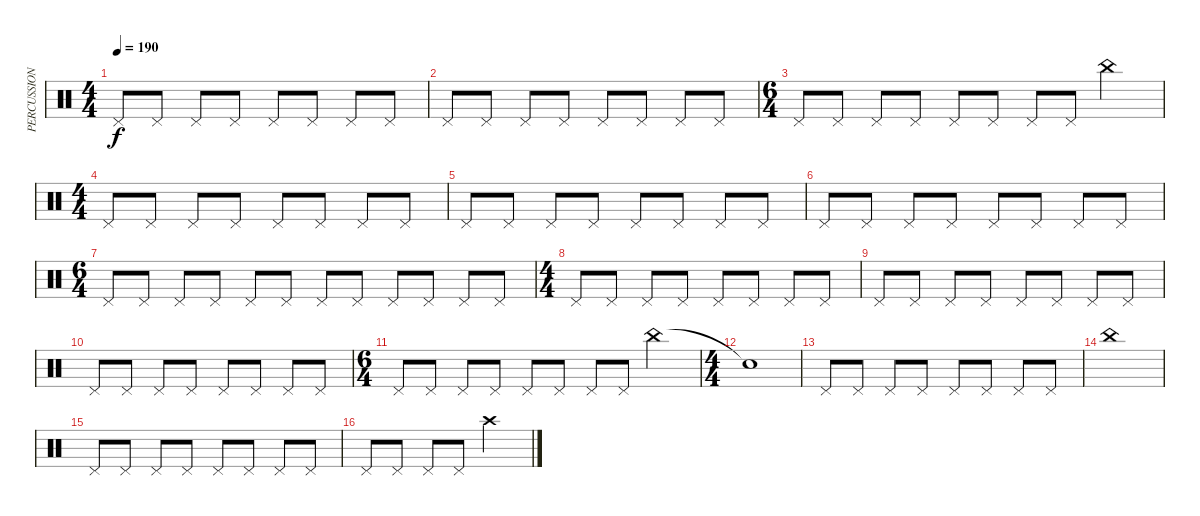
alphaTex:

\track ("PERCUSSION" "PERCUSSION") {instrument percussion}
\staff {score}
\articulation defaults
\ts (4 4)
\tempo 190
\clef neutral
\ks c "Pedal Hi-Hat (hit)".8{dy f} "Pedal Hi-Hat (hit)".8 "Pedal Hi-Hat (hit)".8 "Pedal Hi-Hat (hit)".8 "Pedal Hi-Hat (hit)".8 "Pedal Hi-Hat (hit)".8 "Pedal Hi-Hat (hit)".8 "Pedal Hi-Hat (hit)".8
|
"Pedal Hi-Hat (hit)".8 "Pedal Hi-Hat (hit)".8 "Pedal Hi-Hat (hit)".8 "Pedal Hi-Hat (hit)".8 "Pedal Hi-Hat (hit)".8 "Pedal Hi-Hat (hit)".8 "Pedal Hi-Hat (hit)".8 "Pedal Hi-Hat (hit)".8 |
\ts (6 4)
"Pedal Hi-Hat (hit)".8 "Pedal Hi-Hat (hit)".8 "Pedal Hi-Hat (hit)".8 "Pedal Hi-Hat (hit)".8 "Pedal Hi-Hat (hit)".8 "Pedal Hi-Hat (hit)".8 "Pedal Hi-Hat (hit)".8 "Pedal Hi-Hat (hit)".8 "China (hit)".2 |
\ts (4 4)
"Pedal Hi-Hat (hit)".8 "Pedal Hi-Hat (hit)".8 "Pedal Hi-Hat (hit)".8 "Pedal Hi-Hat (hit)".8 "Pedal Hi-Hat (hit)".8 "Pedal Hi-Hat (hit)".8 "Pedal Hi-Hat (hit)".8 "Pedal Hi-Hat (hit)".8 |
"Pedal Hi-Hat (hit)".8 "Pedal Hi-Hat (hit)".8 "Pedal Hi-Hat (hit)".8 "Pedal Hi-Hat (hit)".8 "Pedal Hi-Hat (hit)".8 "Pedal Hi-Hat (hit)".8 "Pedal Hi-Hat (hit)".8 "Pedal Hi-Hat (hit)".8 |
"Pedal Hi-Hat (hit)".8 "Pedal Hi-Hat (hit)".8 "Pedal Hi-Hat (hit)".8 "Pedal Hi-Hat (hit)".8 "Pedal Hi-Hat (hit)".8 "Pedal Hi-Hat (hit)".8 "Pedal Hi-Hat (hit)".8 "Pedal Hi-Hat (hit)".8 |
\ts (6 4)
"Pedal Hi-Hat (hit)".8 "Pedal Hi-Hat (hit)".8 "Pedal Hi-Hat (hit)".8 "Pedal Hi-Hat (hit)".8 "Pedal Hi-Hat (hit)".8 "Pedal Hi-Hat (hit)".8 "Pedal Hi-Hat (hit)".8 "Pedal Hi-Hat (hit)".8 "Pedal Hi-Hat (hit)".8 "Pedal Hi-Hat (hit)".8 "Pedal Hi-Hat (hit)".8 "Pedal Hi-Hat (hit)".8 |
\ts (4 4)
"Pedal Hi-Hat (hit)".8 "Pedal Hi-Hat (hit)".8 "Pedal Hi-Hat (hit)".8 "Pedal Hi-Hat (hit)".8 "Pedal Hi-Hat (hit)".8 "Pedal Hi-Hat (hit)".8 "Pedal Hi-Hat (hit)".8 "Pedal Hi-Hat (hit)".8 |
"Pedal Hi-Hat (hit)".8 "Pedal Hi-Hat (hit)".8 "Pedal Hi-Hat (hit)".8 "Pedal Hi-Hat (hit)".8 "Pedal Hi-Hat (hit)".8 "Pedal Hi-Hat (hit)".8 "Pedal Hi-Hat (hit)".8 "Pedal Hi-Hat (hit)".8 |
"Pedal Hi-Hat (hit)".8 "Pedal Hi-Hat (hit)".8 "Pedal Hi-Hat (hit)".8 "Pedal Hi-Hat (hit)".8 "Pedal Hi-Hat (hit)".8 "Pedal Hi-Hat (hit)".8 "Pedal Hi-Hat (hit)".8 "Pedal Hi-Hat (hit)".8 |
\ts (6 4)
"Pedal Hi-Hat (hit)".8 "Pedal Hi-Hat (hit)".8 "Pedal Hi-Hat (hit)".8 "Pedal Hi-Hat (hit)".8 "Pedal Hi-Hat (hit)".8 "Pedal Hi-Hat (hit)".8 "Pedal Hi-Hat (hit)".8 "Pedal Hi-Hat (hit)".8 "China (hit)".2 |
\ts (4 4)
"Snare (hit)"{t}.1 |
"Pedal Hi-Hat (hit)".8 "Pedal Hi-Hat (hit)".8 "Pedal Hi-Hat (hit)".8 "Pedal Hi-Hat (hit)".8 "Pedal Hi-Hat (hit)".8 "Pedal Hi-Hat (hit)".8 "Pedal Hi-Hat (hit)".8 "Pedal Hi-Hat (hit)".8 |
"China (hit)".1 |
"Pedal Hi-Hat (hit)".8 "Pedal Hi-Hat (hit)".8 "Pedal Hi-Hat (hit)".8 "Pedal Hi-Hat (hit)".8 "Pedal Hi-Hat (hit)".8 "Pedal Hi-Hat (hit)".8 "Pedal Hi-Hat (hit)".8 "Pedal Hi-Hat (hit)".8 |
"Pedal Hi-Hat (hit)".8 "Pedal Hi-Hat (hit)".8 "Pedal Hi-Hat (hit)".8 "Pedal Hi-Hat (hit)".8 "Crash high (hit)".2
